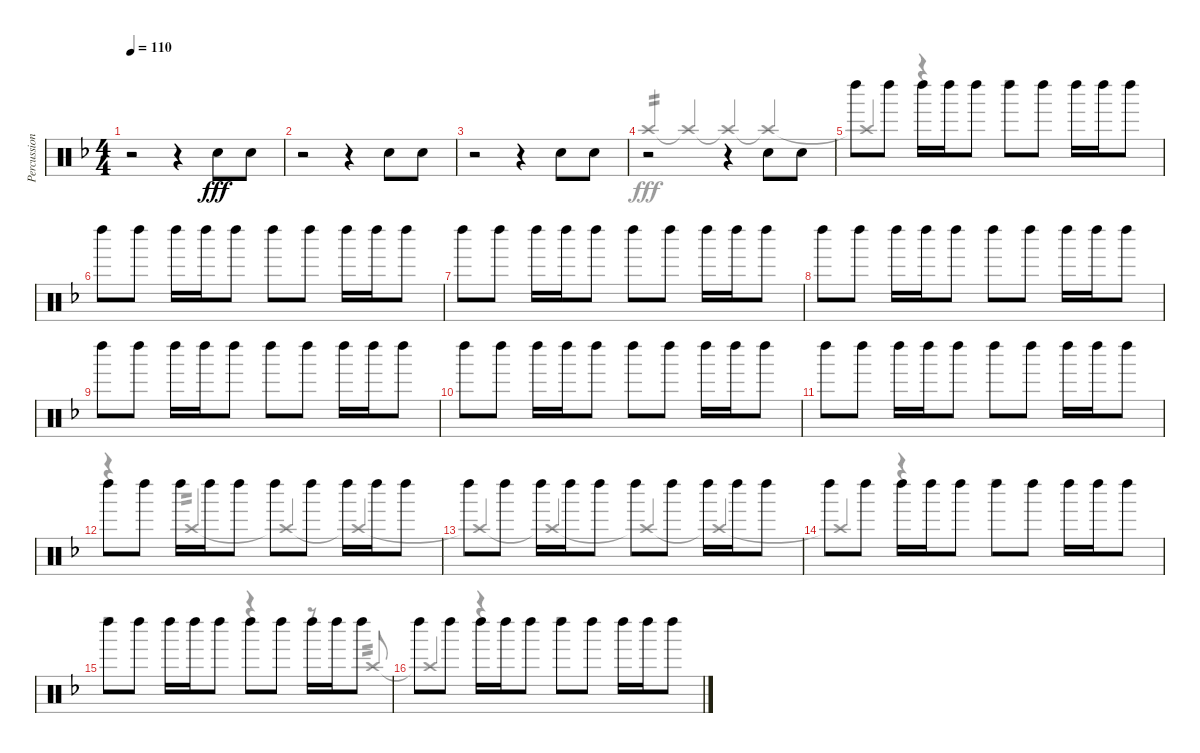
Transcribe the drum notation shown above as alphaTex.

\track ("Percussions" "Percussion") {instrument percussion}
\staff {score}
\articulation defaults
\voice
\ts (4 4)
\tempo 110
\clef neutral
\ks f
r.2{dy fff} r.4 "Hand Clap (hit)".8 "Hand Clap (hit)".8 |
r.2 r.4 "Hand Clap (hit)".8 "Hand Clap (hit)".8 |
r.2 r.4 "Hand Clap (hit)".8 "Hand Clap (hit)".8 |
r.2 r.4 "Hand Clap (hit)".8{beam Down} "Hand Clap (hit)".8{beam Down} |
"Left Maraca (hit)".8{beam Down} "Left Maraca (hit)".8{beam Down} "Left Maraca (hit)".16{beam Down} "Left Maraca (hit)".16{beam Down} "Left Maraca (hit)".8{beam Down} "Left Maraca (hit)".8{beam Down} "Left Maraca (hit)".8{beam Down} "Left Maraca (hit)".16{beam Down} "Left Maraca (hit)".16{beam Down} "Left Maraca (hit)".8{beam Down} |
"Left Maraca (hit)".8 "Left Maraca (hit)".8 "Left Maraca (hit)".16 "Left Maraca (hit)".16 "Left Maraca (hit)".8 "Left Maraca (hit)".8 "Left Maraca (hit)".8 "Left Maraca (hit)".16 "Left Maraca (hit)".16 "Left Maraca (hit)".8 |
"Left Maraca (hit)".8 "Left Maraca (hit)".8 "Left Maraca (hit)".16 "Left Maraca (hit)".16 "Left Maraca (hit)".8 "Left Maraca (hit)".8 "Left Maraca (hit)".8 "Left Maraca (hit)".16 "Left Maraca (hit)".16 "Left Maraca (hit)".8 |
"Left Maraca (hit)".8 "Left Maraca (hit)".8 "Left Maraca (hit)".16 "Left Maraca (hit)".16 "Left Maraca (hit)".8 "Left Maraca (hit)".8 "Left Maraca (hit)".8 "Left Maraca (hit)".16 "Left Maraca (hit)".16 "Left Maraca (hit)".8 |
"Left Maraca (hit)".8 "Left Maraca (hit)".8 "Left Maraca (hit)".16 "Left Maraca (hit)".16 "Left Maraca (hit)".8 "Left Maraca (hit)".8 "Left Maraca (hit)".8 "Left Maraca (hit)".16 "Left Maraca (hit)".16 "Left Maraca (hit)".8 |
"Left Maraca (hit)".8 "Left Maraca (hit)".8 "Left Maraca (hit)".16 "Left Maraca (hit)".16 "Left Maraca (hit)".8 "Left Maraca (hit)".8 "Left Maraca (hit)".8 "Left Maraca (hit)".16 "Left Maraca (hit)".16 "Left Maraca (hit)".8 |
"Left Maraca (hit)".8 "Left Maraca (hit)".8 "Left Maraca (hit)".16 "Left Maraca (hit)".16 "Left Maraca (hit)".8 "Left Maraca (hit)".8 "Left Maraca (hit)".8 "Left Maraca (hit)".16 "Left Maraca (hit)".16 "Left Maraca (hit)".8 |
"Left Maraca (hit)".8{beam Down} "Left Maraca (hit)".8{beam Down} "Left Maraca (hit)".16{beam Down} "Left Maraca (hit)".16{beam Down} "Left Maraca (hit)".8{beam Down} "Left Maraca (hit)".8{beam Down} "Left Maraca (hit)".8{beam Down} "Left Maraca (hit)".16{beam Down} "Left Maraca (hit)".16{beam Down} "Left Maraca (hit)".8{beam Down} |
"Left Maraca (hit)".8{beam Down} "Left Maraca (hit)".8{beam Down} "Left Maraca (hit)".16{beam Down} "Left Maraca (hit)".16{beam Down} "Left Maraca (hit)".8{beam Down} "Left Maraca (hit)".8{beam Down} "Left Maraca (hit)".8{beam Down} "Left Maraca (hit)".16{beam Down} "Left Maraca (hit)".16{beam Down} "Left Maraca (hit)".8{beam Down} |
"Left Maraca (hit)".8{beam Down} "Left Maraca (hit)".8{beam Down} "Left Maraca (hit)".16{beam Down} "Left Maraca (hit)".16{beam Down} "Left Maraca (hit)".8{beam Down} "Left Maraca (hit)".8{beam Down} "Left Maraca (hit)".8{beam Down} "Left Maraca (hit)".16{beam Down} "Left Maraca (hit)".16{beam Down} "Left Maraca (hit)".8{beam Down} |
"Left Maraca (hit)".8{beam Down} "Left Maraca (hit)".8{beam Down} "Left Maraca (hit)".16{beam Down} "Left Maraca (hit)".16{beam Down} "Left Maraca (hit)".8{beam Down} "Left Maraca (hit)".8{beam Down} "Left Maraca (hit)".8{beam Down} "Left Maraca (hit)".16{beam Down} "Left Maraca (hit)".16{beam Down} "Left Maraca (hit)".8{beam Down} |
"Left Maraca (hit)".8{beam Down} "Left Maraca (hit)".8{beam Down} "Left Maraca (hit)".16{beam Down} "Left Maraca (hit)".16{beam Down} "Left Maraca (hit)".8{beam Down} "Left Maraca (hit)".8{beam Down} "Left Maraca (hit)".8{beam Down} "Left Maraca (hit)".16{beam Down} "Left Maraca (hit)".16{beam Down} "Left Maraca (hit)".8{beam Down}
\voice
\clef neutral
\ottava regular
\simile none
\ks f
|
|
|
"Crash high (hit)".4{tp 2 beam Up} "Crash high (hit)"{t}.4{beam Up} "Crash high (hit)"{t}.4{beam Up} "Crash high (hit)"{t}.4{beam Up} |
"Crash high (hit)"{t}.4{beam Up} r.4 r.2 |
|
|
|
|
|
|
r.4 "Crash high (hit)".4{tp 2 beam Up} "Crash high (hit)"{t}.4{beam Up} "Crash high (hit)"{t}.4{beam Up} |
"Crash high (hit)"{t}.4{beam Up} "Crash high (hit)"{t}.4{beam Up} "Crash high (hit)"{t}.4{beam Up} "Crash high (hit)"{t}.4{beam Up} |
"Crash high (hit)"{t}.4{beam Up} r.4 r.2 |
r.2 r.4 r.8 "Crash high (hit)".8{tp 2 beam Up} |
"Crash high (hit)"{t}.4{beam Up} r.4 r.2
